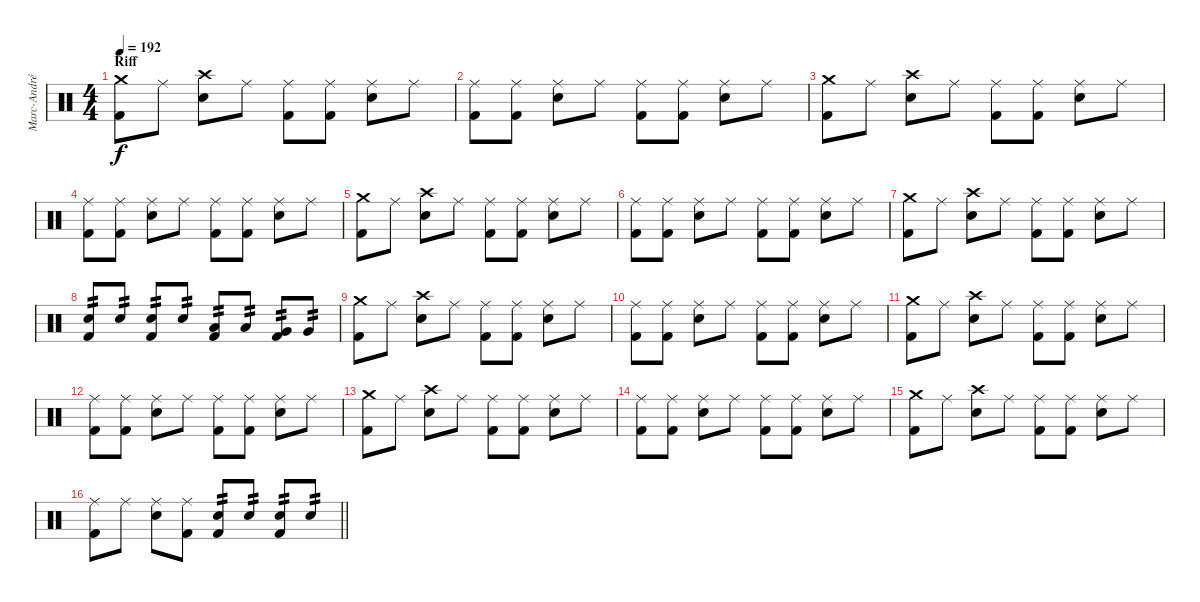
\track ("Marc-André Barabé" "Marc-André") {instrument percussion}
\staff {score}
\articulation defaults
\ts (4 4)
\section ("" "Riff")
\tempo 192
\clef neutral
\ks c
("Crash medium (hit)" "Kick (hit) 2").8{dy f} "Ride (middle)".8 ("Crash high (hit)" "Electric Snare (hit)").8 "Ride (middle)".8 ("Ride (middle)" "Kick (hit) 2").8 ("Ride (middle)" "Kick (hit) 2").8 ("Ride (middle)" "Electric Snare (hit)").8 "Ride (middle)".8 |
("Ride (middle)" "Kick (hit) 2").8 ("Ride (middle)" "Kick (hit) 2").8 ("Ride (middle)" "Electric Snare (hit)").8 "Ride (middle)".8 ("Ride (middle)" "Kick (hit) 2").8 ("Ride (middle)" "Kick (hit) 2").8 ("Ride (middle)" "Electric Snare (hit)").8 "Ride (middle)".8 |
("Crash medium (hit)" "Kick (hit) 2").8 "Ride (middle)".8 ("Crash high (hit)" "Electric Snare (hit)").8 "Ride (middle)".8 ("Ride (middle)" "Kick (hit) 2").8 ("Ride (middle)" "Kick (hit) 2").8 ("Ride (middle)" "Electric Snare (hit)").8 "Ride (middle)".8 |
("Ride (middle)" "Kick (hit) 2").8 ("Ride (middle)" "Kick (hit) 2").8 ("Ride (middle)" "Electric Snare (hit)").8 "Ride (middle)".8 ("Ride (middle)" "Kick (hit) 2").8 ("Ride (middle)" "Kick (hit) 2").8 ("Ride (middle)" "Electric Snare (hit)").8 "Ride (middle)".8 |
("Crash medium (hit)" "Kick (hit) 2").8 "Ride (middle)".8 ("Crash high (hit)" "Electric Snare (hit)").8 "Ride (middle)".8 ("Ride (middle)" "Kick (hit) 2").8 ("Ride (middle)" "Kick (hit) 2").8 ("Ride (middle)" "Electric Snare (hit)").8 "Ride (middle)".8 |
("Ride (middle)" "Kick (hit) 2").8 ("Ride (middle)" "Kick (hit) 2").8 ("Ride (middle)" "Electric Snare (hit)").8 "Ride (middle)".8 ("Ride (middle)" "Kick (hit) 2").8 ("Ride (middle)" "Kick (hit) 2").8 ("Ride (middle)" "Electric Snare (hit)").8 "Ride (middle)".8 |
("Crash medium (hit)" "Kick (hit) 2").8 "Ride (middle)".8 ("Crash high (hit)" "Electric Snare (hit)").8 "Ride (middle)".8 ("Ride (middle)" "Kick (hit) 2").8 ("Ride (middle)" "Kick (hit) 2").8 ("Ride (middle)" "Electric Snare (hit)").8 "Ride (middle)".8 |
("Electric Snare (hit)" "Kick (hit) 2").8{tp 2} "Electric Snare (hit)".8{tp 2} ("Electric Snare (hit)" "Kick (hit) 2").8{tp 2} "Electric Snare (hit)".8{tp 2} ("Low Tom (hit)" "Kick (hit) 2").8{tp 2} "Low Tom (hit)".8{tp 2} ("Very Low Tom (hit)" "Kick (hit) 2").8{tp 2} "Very Low Tom (hit)".8{tp 2} |
("Crash medium (hit)" "Kick (hit) 2").8 "Ride (middle)".8 ("Crash high (hit)" "Electric Snare (hit)").8 "Ride (middle)".8 ("Ride (middle)" "Kick (hit) 2").8 ("Ride (middle)" "Kick (hit) 2").8 ("Ride (middle)" "Electric Snare (hit)").8 "Ride (middle)".8 |
("Ride (middle)" "Kick (hit) 2").8 ("Ride (middle)" "Kick (hit) 2").8 ("Ride (middle)" "Electric Snare (hit)").8 "Ride (middle)".8 ("Ride (middle)" "Kick (hit) 2").8 ("Ride (middle)" "Kick (hit) 2").8 ("Ride (middle)" "Electric Snare (hit)").8 "Ride (middle)".8 |
("Crash medium (hit)" "Kick (hit) 2").8 "Ride (middle)".8 ("Crash high (hit)" "Electric Snare (hit)").8 "Ride (middle)".8 ("Ride (middle)" "Kick (hit) 2").8 ("Ride (middle)" "Kick (hit) 2").8 ("Ride (middle)" "Electric Snare (hit)").8 "Ride (middle)".8 |
("Ride (middle)" "Kick (hit) 2").8 ("Ride (middle)" "Kick (hit) 2").8 ("Ride (middle)" "Electric Snare (hit)").8 "Ride (middle)".8 ("Ride (middle)" "Kick (hit) 2").8 ("Ride (middle)" "Kick (hit) 2").8 ("Ride (middle)" "Electric Snare (hit)").8 "Ride (middle)".8 |
("Crash medium (hit)" "Kick (hit) 2").8 "Ride (middle)".8 ("Crash high (hit)" "Electric Snare (hit)").8 "Ride (middle)".8 ("Ride (middle)" "Kick (hit) 2").8 ("Ride (middle)" "Kick (hit) 2").8 ("Ride (middle)" "Electric Snare (hit)").8 "Ride (middle)".8 |
("Ride (middle)" "Kick (hit) 2").8 ("Ride (middle)" "Kick (hit) 2").8 ("Ride (middle)" "Electric Snare (hit)").8 "Ride (middle)".8 ("Ride (middle)" "Kick (hit) 2").8 ("Ride (middle)" "Kick (hit) 2").8 ("Ride (middle)" "Electric Snare (hit)").8 "Ride (middle)".8 |
("Crash medium (hit)" "Kick (hit) 2").8 "Ride (middle)".8 ("Crash high (hit)" "Electric Snare (hit)").8 "Ride (middle)".8 ("Ride (middle)" "Kick (hit) 2").8 ("Ride (middle)" "Kick (hit) 2").8 ("Ride (middle)" "Electric Snare (hit)").8 "Ride (middle)".8 |
\barLineRight lightlight
("Ride (middle)" "Kick (hit) 2").8 "Ride (middle)".8 ("Ride (middle)" "Electric Snare (hit)").8 ("Ride (middle)" "Kick (hit) 2").8 ("Electric Snare (hit)" "Kick (hit) 2").8{tp 2} "Electric Snare (hit)".8{tp 2} ("Electric Snare (hit)" "Kick (hit) 2").8{tp 2} "Electric Snare (hit)".8{tp 2}
